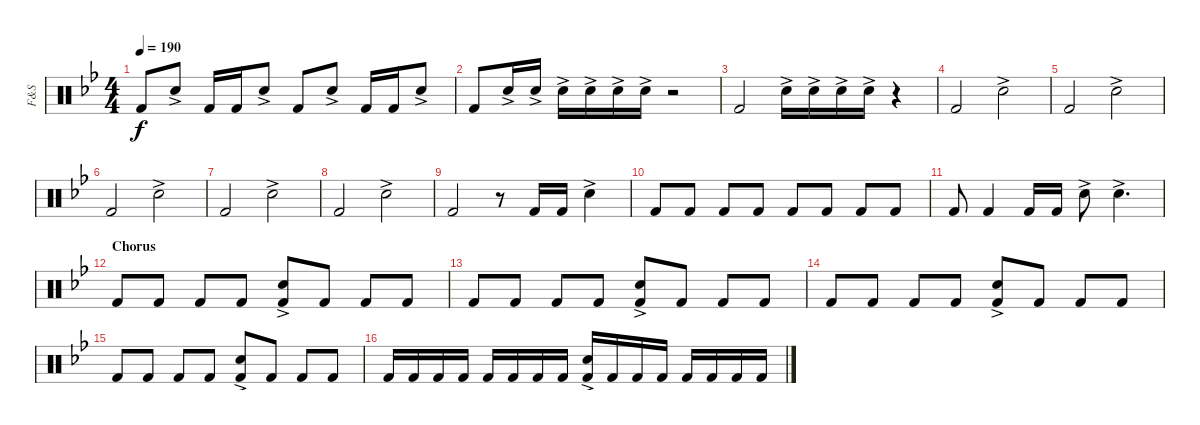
\track ("F&S" "F&S") {instrument percussion}
\staff {score}
\articulation defaults
\ts (4 4)
\tempo 190
\clef neutral
\ks bb "Kick (hit) 2".8{dy f} "Snare (hit) 2"{ac}.8 "Kick (hit) 2".16 "Kick (hit) 2".16 "Snare (hit) 2"{ac}.8 "Kick (hit) 2".8 "Snare (hit) 2"{ac}.8 "Kick (hit) 2".16 "Kick (hit) 2".16 "Snare (hit) 2"{ac}.8
|
"Kick (hit) 2".8 "Snare (hit) 2"{ac}.16 "Snare (hit) 2"{ac}.16 "Snare (hit) 2"{ac}.16 "Snare (hit) 2"{ac}.16 "Snare (hit) 2"{ac}.16 "Snare (hit) 2"{ac}.16 r.2 |
"Kick (hit) 2".2 "Snare (hit) 2"{ac}.16 "Snare (hit) 2"{ac}.16 "Snare (hit) 2"{ac}.16 "Snare (hit) 2"{ac}.16 r.4 |
"Kick (hit) 2".2 "Snare (hit) 2"{ac}.2 |
"Kick (hit) 2".2 "Snare (hit) 2"{ac}.2 |
"Kick (hit) 2".2 "Snare (hit) 2"{ac}.2 |
"Kick (hit) 2".2 "Snare (hit) 2"{ac}.2 |
"Kick (hit) 2".2 "Snare (hit) 2"{ac}.2 |
"Kick (hit) 2".2 r.8 "Kick (hit) 2".16 "Kick (hit) 2".16 "Snare (hit) 2"{ac}.4 |
"Kick (hit) 2".8 "Kick (hit) 2".8 "Kick (hit) 2".8 "Kick (hit) 2".8 "Kick (hit) 2".8 "Kick (hit) 2".8 "Kick (hit) 2".8 "Kick (hit) 2".8 |
"Kick (hit) 2".8 "Kick (hit) 2".4 "Kick (hit) 2".16 "Kick (hit) 2".16 "Snare (hit) 2"{ac}.8 "Snare (hit) 2"{ac}.4{d} |
\section ("" "Chorus")
"Kick (hit) 2".8 "Kick (hit) 2".8 "Kick (hit) 2".8 "Kick (hit) 2".8 ("Kick (hit) 2" "Snare (hit) 2"{ac}).8 "Kick (hit) 2".8 "Kick (hit) 2".8 "Kick (hit) 2".8 |
"Kick (hit) 2".8 "Kick (hit) 2".8 "Kick (hit) 2".8 "Kick (hit) 2".8 ("Kick (hit) 2" "Snare (hit) 2"{ac}).8 "Kick (hit) 2".8 "Kick (hit) 2".8 "Kick (hit) 2".8 |
"Kick (hit) 2".8 "Kick (hit) 2".8 "Kick (hit) 2".8 "Kick (hit) 2".8 ("Kick (hit) 2" "Snare (hit) 2"{ac}).8 "Kick (hit) 2".8 "Kick (hit) 2".8 "Kick (hit) 2".8 |
"Kick (hit) 2".8 "Kick (hit) 2".8 "Kick (hit) 2".8 "Kick (hit) 2".8 ("Kick (hit) 2" "Snare (hit) 2"{ac}).8 "Kick (hit) 2".8 "Kick (hit) 2".8 "Kick (hit) 2".8 |
"Kick (hit) 2".16 "Kick (hit) 2".16 "Kick (hit) 2".16 "Kick (hit) 2".16 "Kick (hit) 2".16 "Kick (hit) 2".16 "Kick (hit) 2".16 "Kick (hit) 2".16 ("Kick (hit) 2" "Snare (hit) 2"{ac}).16 "Kick (hit) 2".16 "Kick (hit) 2".16 "Kick (hit) 2".16 "Kick (hit) 2".16 "Kick (hit) 2".16 "Kick (hit) 2".16 "Kick (hit) 2".16
